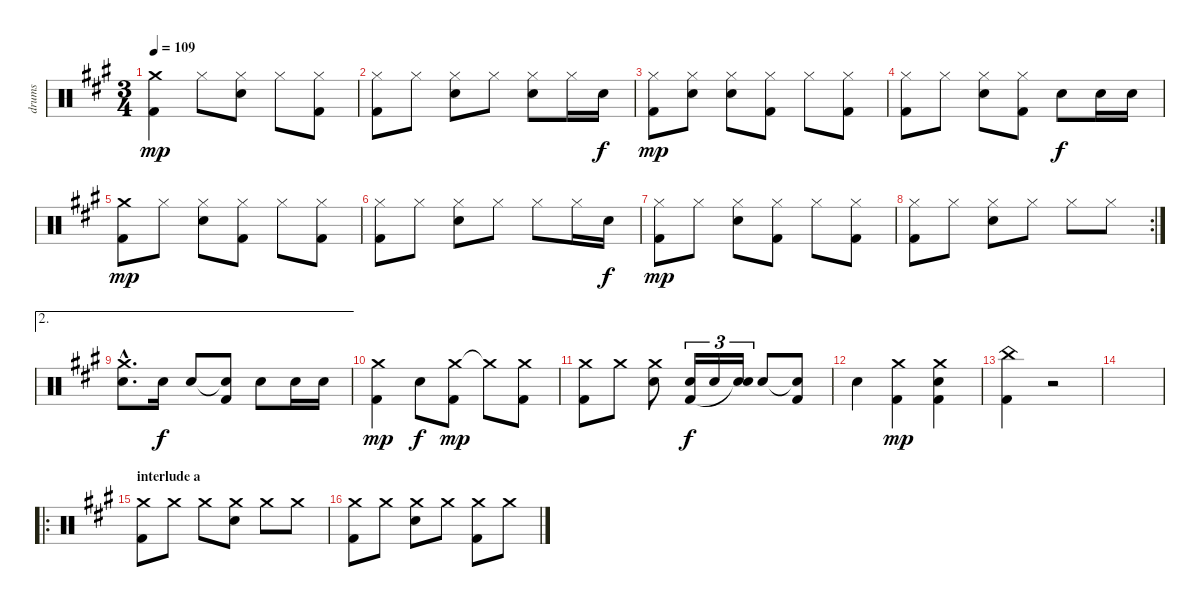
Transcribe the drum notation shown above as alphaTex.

\track ("drums" "drums") {instrument percussion}
\staff {score}
\articulation defaults
\ts (3 4)
\tempo 109
\clef neutral
\ks a
("Crash medium (hit)" "Kick (hit) 2").4{dy mp} "Hi-Hat (closed)".8 ("Hi-Hat (closed)" "Snare (hit) 2").8 "Hi-Hat (closed)".8 ("Hi-Hat (closed)" "Kick (hit) 2").8 |
("Hi-Hat (closed)" "Kick (hit) 2").8 "Hi-Hat (closed)".8 ("Hi-Hat (closed)" "Snare (hit) 2").8 "Hi-Hat (closed)".8 ("Hi-Hat (closed)" "Snare (hit) 2").8 "Hi-Hat (closed)".16 "Snare (hit) 2".16{dy f} |
("Hi-Hat (closed)" "Kick (hit) 2").8{dy mp} ("Hi-Hat (closed)" "Snare (hit) 2").8 ("Hi-Hat (closed)" "Snare (hit) 2").8 ("Hi-Hat (closed)" "Kick (hit) 2").8 "Hi-Hat (closed)".8 ("Hi-Hat (closed)" "Kick (hit) 2").8 |
("Hi-Hat (closed)" "Kick (hit) 2").8 "Hi-Hat (closed)".8 ("Hi-Hat (closed)" "Snare (hit) 2").8 ("Hi-Hat (closed)" "Kick (hit) 2").8 "Snare (hit) 2".8{dy f} "Snare (hit) 2".16 "Snare (hit) 2".16 |
("Crash medium (hit)" "Kick (hit) 2").8{dy mp} "Hi-Hat (closed)".8 ("Hi-Hat (closed)" "Snare (hit) 2").8 ("Hi-Hat (closed)" "Kick (hit) 2").8 "Hi-Hat (closed)".8 ("Hi-Hat (closed)" "Kick (hit) 2").8 |
("Hi-Hat (closed)" "Kick (hit) 2").8 "Hi-Hat (closed)".8 ("Hi-Hat (closed)" "Snare (hit) 2").8 "Hi-Hat (closed)".8 "Hi-Hat (closed)".8 "Hi-Hat (closed)".16 "Snare (hit) 2".16{dy f} |
("Hi-Hat (closed)" "Kick (hit) 2").8{dy mp} "Hi-Hat (closed)".8 ("Hi-Hat (closed)" "Snare (hit) 2").8 ("Hi-Hat (closed)" "Kick (hit) 2").8 "Hi-Hat (closed)".8 ("Hi-Hat (closed)" "Kick (hit) 2").8 |
\rc 2
("Hi-Hat (closed)" "Kick (hit) 2").8 "Hi-Hat (closed)".8 ("Hi-Hat (closed)" "Snare (hit) 2").8 "Hi-Hat (closed)".8 "Hi-Hat (closed)".8 "Hi-Hat (closed)".8 |
\ae 2
("Crash medium (hit)"{hac} "Snare (hit) 2"{hac}).8{d} "Snare (hit) 2".16{dy f} "Snare (hit) 2".8 ("Snare (hit)"{t} "Kick (hit) 2").8 "Snare (hit) 2".8 "Snare (hit) 2".16 "Snare (hit) 2".16 |
("Crash medium (hit)" "Kick (hit) 2").4{dy mp} "Snare (hit) 2".8{dy f} ("Crash medium (hit)" "Kick (hit) 2").8{dy mp} "Crash medium (hit)"{t}.8 ("Crash medium (hit)" "Kick (hit) 2").8 |
("Crash medium (hit)" "Kick (hit) 2").8 "Crash medium (hit)".8 ("Crash medium (hit)" "Snare (hit) 2").8 ("Snare (hit) 2" "Kick (hit) 2").16{tu (3 2) dy f} "Snare (hit) 2".16{tu (3 2)} ("Snare (hit) 2" "Snare (hit)"{t}).16{tu (3 2)} "Snare (hit) 2".8 ("Snare (hit) 2"{t} "Kick (hit) 2").8 |
"Snare (hit) 2".4 ("Crash medium (hit)" "Kick (hit) 2").4{dy mp} ("Crash medium (hit)" "Snare (hit) 2" "Kick (hit) 2").4 |
("China (hit)" "Kick (hit) 2").4 r.2 |
|
\ro
\section ("" "interlude a")
("Crash medium (hit)" "Kick (hit) 2").8 "Crash medium (hit)".8 "Crash medium (hit)".8 ("Crash medium (hit)" "Snare (hit) 2").8 "Crash medium (hit)".8 "Crash medium (hit)".8 |
("Crash medium (hit)" "Kick (hit) 2").8 "Crash medium (hit)".8 ("Crash medium (hit)" "Snare (hit) 2").8 "Crash medium (hit)".8 ("Crash medium (hit)" "Kick (hit) 2").8 "Crash medium (hit)".8
